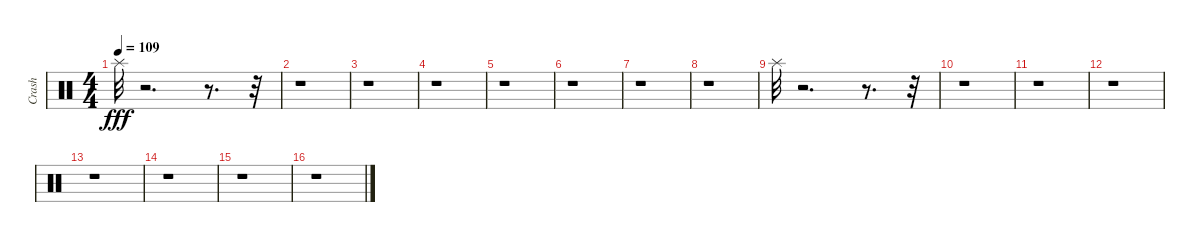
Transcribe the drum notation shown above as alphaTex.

\track ("Crash" "Crash") {instrument percussion}
\staff {score}
\articulation defaults
\ts (4 4)
\tempo 109
\clef neutral
\ks c "Splash (hit)".32{dy fff}
r.2{d} r.8{d} r.32 |
r.1 |
r.1 |
r.1 |
r.1 |
r.1 |
r.1 |
r.1 |
"Splash (hit)".32 r.2{d} r.8{d} r.32 |
r.1 |
r.1 |
r.1 |
r.1 |
r.1 |
r.1 |
r.1
